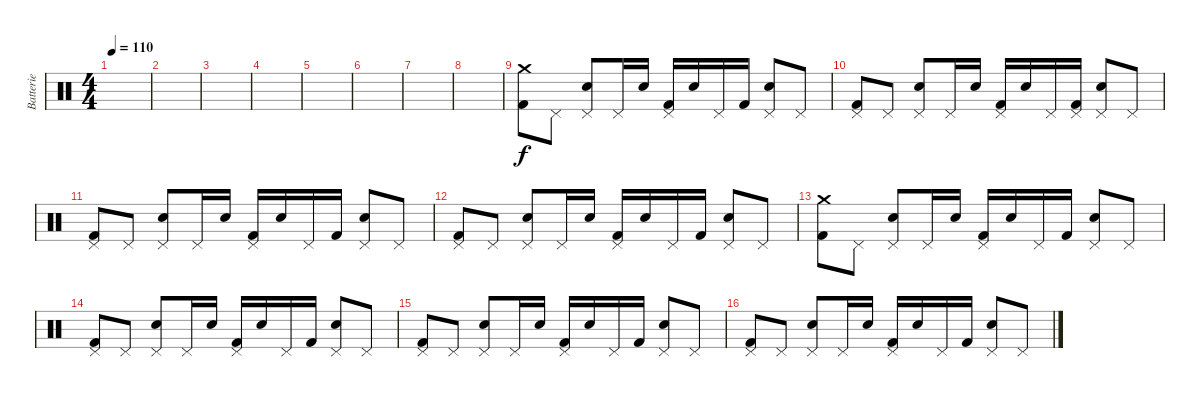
\track ("Batterie" "Batterie") {instrument percussion}
\staff {score}
\articulation defaults
\ts (4 4)
\tempo 110
\clef neutral
\ks c
|
|
|
|
|
|
|
|
("Crash medium (hit)" "Kick (hit) 2").8 "Pedal Hi-Hat (hit)".8 ("Pedal Hi-Hat (hit)" "Electric Snare (hit)").8 "Pedal Hi-Hat (hit)".16 "Electric Snare (hit)".16 ("Pedal Hi-Hat (hit)" "Kick (hit) 2").16 "Electric Snare (hit)".16 "Pedal Hi-Hat (hit)".16 "Kick (hit) 2".16 ("Pedal Hi-Hat (hit)" "Electric Snare (hit)").8 "Pedal Hi-Hat (hit)".8 |
("Pedal Hi-Hat (hit)" "Kick (hit) 2").8 "Pedal Hi-Hat (hit)".8 ("Pedal Hi-Hat (hit)" "Electric Snare (hit)").8 "Pedal Hi-Hat (hit)".16 "Electric Snare (hit)".16 ("Pedal Hi-Hat (hit)" "Kick (hit) 2").16 "Electric Snare (hit)".16 "Pedal Hi-Hat (hit)".16 ("Pedal Hi-Hat (hit)" "Kick (hit) 2").16 ("Pedal Hi-Hat (hit)" "Electric Snare (hit)").8 "Pedal Hi-Hat (hit)".8 |
("Pedal Hi-Hat (hit)" "Kick (hit) 2").8 "Pedal Hi-Hat (hit)".8 ("Pedal Hi-Hat (hit)" "Electric Snare (hit)").8 "Pedal Hi-Hat (hit)".16 "Electric Snare (hit)".16 ("Pedal Hi-Hat (hit)" "Kick (hit) 2").16 "Electric Snare (hit)".16 "Pedal Hi-Hat (hit)".16 "Kick (hit) 2".16 ("Pedal Hi-Hat (hit)" "Electric Snare (hit)").8 "Pedal Hi-Hat (hit)".8 |
("Pedal Hi-Hat (hit)" "Kick (hit) 2").8 "Pedal Hi-Hat (hit)".8 ("Pedal Hi-Hat (hit)" "Electric Snare (hit)").8 "Pedal Hi-Hat (hit)".16 "Electric Snare (hit)".16 ("Pedal Hi-Hat (hit)" "Kick (hit) 2").16 "Electric Snare (hit)".16 "Pedal Hi-Hat (hit)".16 "Kick (hit) 2".16 ("Pedal Hi-Hat (hit)" "Electric Snare (hit)").8 "Pedal Hi-Hat (hit)".8 |
("Crash medium (hit)" "Kick (hit) 2").8 "Pedal Hi-Hat (hit)".8 ("Pedal Hi-Hat (hit)" "Electric Snare (hit)").8 "Pedal Hi-Hat (hit)".16 "Electric Snare (hit)".16 ("Pedal Hi-Hat (hit)" "Kick (hit) 2").16 "Electric Snare (hit)".16 "Pedal Hi-Hat (hit)".16 "Kick (hit) 2".16 ("Pedal Hi-Hat (hit)" "Electric Snare (hit)").8 "Pedal Hi-Hat (hit)".8 |
("Pedal Hi-Hat (hit)" "Kick (hit) 2").8 "Pedal Hi-Hat (hit)".8 ("Pedal Hi-Hat (hit)" "Electric Snare (hit)").8 "Pedal Hi-Hat (hit)".16 "Electric Snare (hit)".16 ("Pedal Hi-Hat (hit)" "Kick (hit) 2").16 "Electric Snare (hit)".16 "Pedal Hi-Hat (hit)".16 "Kick (hit) 2".16 ("Pedal Hi-Hat (hit)" "Electric Snare (hit)").8 "Pedal Hi-Hat (hit)".8 |
("Pedal Hi-Hat (hit)" "Kick (hit) 2").8 "Pedal Hi-Hat (hit)".8 ("Pedal Hi-Hat (hit)" "Electric Snare (hit)").8 "Pedal Hi-Hat (hit)".16 "Electric Snare (hit)".16 ("Pedal Hi-Hat (hit)" "Kick (hit) 2").16 "Electric Snare (hit)".16 "Pedal Hi-Hat (hit)".16 "Kick (hit) 2".16 ("Pedal Hi-Hat (hit)" "Electric Snare (hit)").8 "Pedal Hi-Hat (hit)".8 |
("Pedal Hi-Hat (hit)" "Kick (hit) 2").8 "Pedal Hi-Hat (hit)".8 ("Pedal Hi-Hat (hit)" "Electric Snare (hit)").8 "Pedal Hi-Hat (hit)".16 "Electric Snare (hit)".16 ("Pedal Hi-Hat (hit)" "Kick (hit) 2").16 "Electric Snare (hit)".16 "Pedal Hi-Hat (hit)".16 "Kick (hit) 2".16 ("Pedal Hi-Hat (hit)" "Electric Snare (hit)").8 "Pedal Hi-Hat (hit)".8
